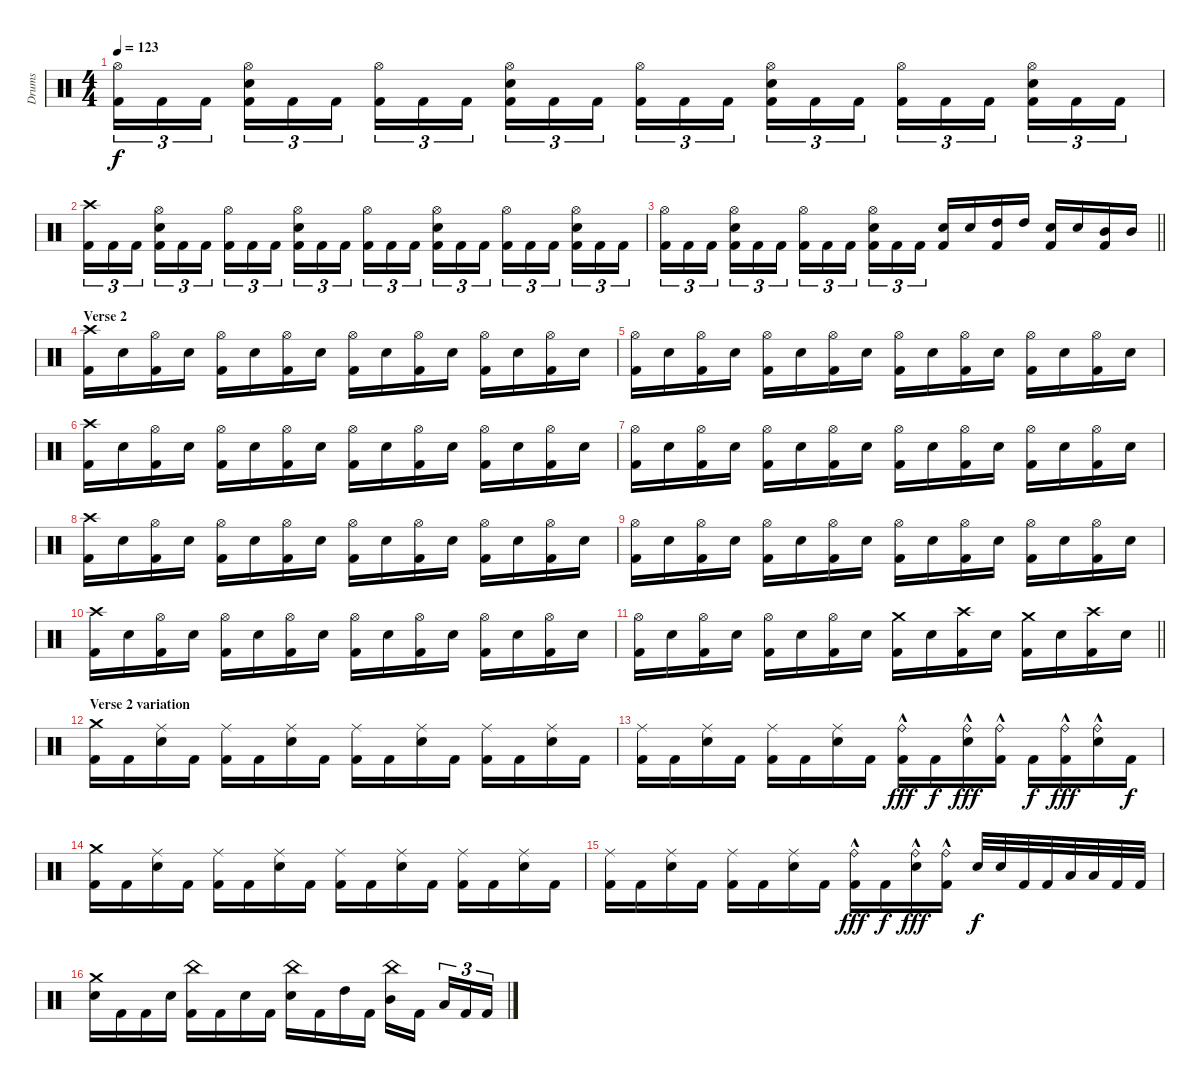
\track ("Drums" "Drums") {instrument percussion}
\staff {score}
\articulation defaults
\ts (4 4)
\tempo 123
\clef neutral
\ks c
("Hi-Hat (open)" "Kick (hit) 2").16{tu (3 2) dy f} "Kick (hit) 2".16{tu (3 2)} "Kick (hit) 2".16{tu (3 2) beam splitsecondary} ("Hi-Hat (open)" "Snare (hit) 2" "Kick (hit) 2").16{tu (3 2)} "Kick (hit) 2".16{tu (3 2)} "Kick (hit) 2".16{tu (3 2)} ("Hi-Hat (open)" "Kick (hit) 2").16{tu (3 2)} "Kick (hit) 2".16{tu (3 2)} "Kick (hit) 2".16{tu (3 2) beam splitsecondary} ("Hi-Hat (open)" "Snare (hit) 2" "Kick (hit) 2").16{tu (3 2)} "Kick (hit) 2".16{tu (3 2)} "Kick (hit) 2".16{tu (3 2)} ("Hi-Hat (open)" "Kick (hit) 2").16{tu (3 2)} "Kick (hit) 2".16{tu (3 2)} "Kick (hit) 2".16{tu (3 2) beam splitsecondary} ("Hi-Hat (open)" "Snare (hit) 2" "Kick (hit) 2").16{tu (3 2)} "Kick (hit) 2".16{tu (3 2)} "Kick (hit) 2".16{tu (3 2)} ("Hi-Hat (open)" "Kick (hit) 2").16{tu (3 2)} "Kick (hit) 2".16{tu (3 2)} "Kick (hit) 2".16{tu (3 2) beam splitsecondary} ("Hi-Hat (open)" "Snare (hit) 2" "Kick (hit) 2").16{tu (3 2)} "Kick (hit) 2".16{tu (3 2)} "Kick (hit) 2".16{tu (3 2)} |
("Crash high (hit)" "Kick (hit) 2").16{tu (3 2)} "Kick (hit) 2".16{tu (3 2)} "Kick (hit) 2".16{tu (3 2) beam splitsecondary} ("Hi-Hat (open)" "Snare (hit) 2" "Kick (hit) 2").16{tu (3 2)} "Kick (hit) 2".16{tu (3 2)} "Kick (hit) 2".16{tu (3 2)} ("Hi-Hat (open)" "Kick (hit) 2").16{tu (3 2)} "Kick (hit) 2".16{tu (3 2)} "Kick (hit) 2".16{tu (3 2) beam splitsecondary} ("Hi-Hat (open)" "Snare (hit) 2" "Kick (hit) 2").16{tu (3 2)} "Kick (hit) 2".16{tu (3 2)} "Kick (hit) 2".16{tu (3 2)} ("Hi-Hat (open)" "Kick (hit) 2").16{tu (3 2)} "Kick (hit) 2".16{tu (3 2)} "Kick (hit) 2".16{tu (3 2) beam splitsecondary} ("Hi-Hat (open)" "Snare (hit) 2" "Kick (hit) 2").16{tu (3 2)} "Kick (hit) 2".16{tu (3 2)} "Kick (hit) 2".16{tu (3 2)} ("Hi-Hat (open)" "Kick (hit) 2").16{tu (3 2)} "Kick (hit) 2".16{tu (3 2)} "Kick (hit) 2".16{tu (3 2) beam splitsecondary} ("Hi-Hat (open)" "Snare (hit) 2" "Kick (hit) 2").16{tu (3 2)} "Kick (hit) 2".16{tu (3 2)} "Kick (hit) 2".16{tu (3 2)} |
\barLineRight lightlight
("Hi-Hat (open)" "Kick (hit) 2").16{tu (3 2)} "Kick (hit) 2".16{tu (3 2)} "Kick (hit) 2".16{tu (3 2) beam splitsecondary} ("Hi-Hat (open)" "Snare (hit) 2" "Kick (hit) 2").16{tu (3 2)} "Kick (hit) 2".16{tu (3 2)} "Kick (hit) 2".16{tu (3 2)} ("Hi-Hat (open)" "Kick (hit) 2").16{tu (3 2)} "Kick (hit) 2".16{tu (3 2)} "Kick (hit) 2".16{tu (3 2) beam splitsecondary} ("Hi-Hat (open)" "Snare (hit) 2" "Kick (hit) 2").16{tu (3 2)} "Kick (hit) 2".16{tu (3 2)} "Kick (hit) 2".16{tu (3 2)} ("Snare (hit) 2" "Kick (hit) 2").16 "Snare (hit) 2".16 ("High Tom (hit)" "Kick (hit) 2").16 "High Tom (hit)".16 ("Snare (hit) 2" "Kick (hit) 2").16 "Snare (hit) 2".16 ("Mid Tom (hit)" "Kick (hit) 2").16 "Mid Tom (hit)".16 |
\section ("" "Verse 2")
("Crash high (hit)" "Kick (hit) 2").16 "Snare (hit) 2".16 ("Hi-Hat (open)" "Kick (hit) 2").16 "Snare (hit) 2".16 ("Hi-Hat (open)" "Kick (hit) 2").16 "Snare (hit) 2".16 ("Hi-Hat (open)" "Kick (hit) 2").16 "Snare (hit) 2".16 ("Hi-Hat (open)" "Kick (hit) 2").16 "Snare (hit) 2".16 ("Hi-Hat (open)" "Kick (hit) 2").16 "Snare (hit) 2".16 ("Hi-Hat (open)" "Kick (hit) 2").16 "Snare (hit) 2".16 ("Hi-Hat (open)" "Kick (hit) 2").16 "Snare (hit) 2".16 |
("Hi-Hat (open)" "Kick (hit) 2").16 "Snare (hit) 2".16 ("Hi-Hat (open)" "Kick (hit) 2").16 "Snare (hit) 2".16 ("Hi-Hat (open)" "Kick (hit) 2").16 "Snare (hit) 2".16 ("Hi-Hat (open)" "Kick (hit) 2").16 "Snare (hit) 2".16 ("Hi-Hat (open)" "Kick (hit) 2").16 "Snare (hit) 2".16 ("Hi-Hat (open)" "Kick (hit) 2").16 "Snare (hit) 2".16 ("Hi-Hat (open)" "Kick (hit) 2").16 "Snare (hit) 2".16 ("Hi-Hat (open)" "Kick (hit) 2").16 "Snare (hit) 2".16 |
("Crash high (hit)" "Kick (hit) 2").16 "Snare (hit) 2".16 ("Hi-Hat (open)" "Kick (hit) 2").16 "Snare (hit) 2".16 ("Hi-Hat (open)" "Kick (hit) 2").16 "Snare (hit) 2".16 ("Hi-Hat (open)" "Kick (hit) 2").16 "Snare (hit) 2".16 ("Hi-Hat (open)" "Kick (hit) 2").16 "Snare (hit) 2".16 ("Hi-Hat (open)" "Kick (hit) 2").16 "Snare (hit) 2".16 ("Hi-Hat (open)" "Kick (hit) 2").16 "Snare (hit) 2".16 ("Hi-Hat (open)" "Kick (hit) 2").16 "Snare (hit) 2".16 |
("Hi-Hat (open)" "Kick (hit) 2").16 "Snare (hit) 2".16 ("Hi-Hat (open)" "Kick (hit) 2").16 "Snare (hit) 2".16 ("Hi-Hat (open)" "Kick (hit) 2").16 "Snare (hit) 2".16 ("Hi-Hat (open)" "Kick (hit) 2").16 "Snare (hit) 2".16 ("Hi-Hat (open)" "Kick (hit) 2").16 "Snare (hit) 2".16 ("Hi-Hat (open)" "Kick (hit) 2").16 "Snare (hit) 2".16 ("Hi-Hat (open)" "Kick (hit) 2").16 "Snare (hit) 2".16 ("Hi-Hat (open)" "Kick (hit) 2").16 "Snare (hit) 2".16 |
("Crash high (hit)" "Kick (hit) 2").16 "Snare (hit) 2".16 ("Hi-Hat (open)" "Kick (hit) 2").16 "Snare (hit) 2".16 ("Hi-Hat (open)" "Kick (hit) 2").16 "Snare (hit) 2".16 ("Hi-Hat (open)" "Kick (hit) 2").16 "Snare (hit) 2".16 ("Hi-Hat (open)" "Kick (hit) 2").16 "Snare (hit) 2".16 ("Hi-Hat (open)" "Kick (hit) 2").16 "Snare (hit) 2".16 ("Hi-Hat (open)" "Kick (hit) 2").16 "Snare (hit) 2".16 ("Hi-Hat (open)" "Kick (hit) 2").16 "Snare (hit) 2".16 |
("Hi-Hat (open)" "Kick (hit) 2").16 "Snare (hit) 2".16 ("Hi-Hat (open)" "Kick (hit) 2").16 "Snare (hit) 2".16 ("Hi-Hat (open)" "Kick (hit) 2").16 "Snare (hit) 2".16 ("Hi-Hat (open)" "Kick (hit) 2").16 "Snare (hit) 2".16 ("Hi-Hat (open)" "Kick (hit) 2").16 "Snare (hit) 2".16 ("Hi-Hat (open)" "Kick (hit) 2").16 "Snare (hit) 2".16 ("Hi-Hat (open)" "Kick (hit) 2").16 "Snare (hit) 2".16 ("Hi-Hat (open)" "Kick (hit) 2").16 "Snare (hit) 2".16 |
("Crash high (hit)" "Kick (hit) 2").16 "Snare (hit) 2".16 ("Hi-Hat (open)" "Kick (hit) 2").16 "Snare (hit) 2".16 ("Hi-Hat (open)" "Kick (hit) 2").16 "Snare (hit) 2".16 ("Hi-Hat (open)" "Kick (hit) 2").16 "Snare (hit) 2".16 ("Hi-Hat (open)" "Kick (hit) 2").16 "Snare (hit) 2".16 ("Hi-Hat (open)" "Kick (hit) 2").16 "Snare (hit) 2".16 ("Hi-Hat (open)" "Kick (hit) 2").16 "Snare (hit) 2".16 ("Hi-Hat (open)" "Kick (hit) 2").16 "Snare (hit) 2".16 |
\barLineRight lightlight
("Hi-Hat (open)" "Kick (hit) 2").16 "Snare (hit) 2".16 ("Hi-Hat (open)" "Kick (hit) 2").16 "Snare (hit) 2".16 ("Hi-Hat (open)" "Kick (hit) 2").16 "Snare (hit) 2".16 ("Hi-Hat (open)" "Kick (hit) 2").16 "Snare (hit) 2".16 ("Crash medium (hit)" "Kick (hit) 2").16 "Snare (hit) 2".16 ("Crash high (hit)" "Kick (hit) 2").16 "Snare (hit) 2".16 ("Crash medium (hit)" "Kick (hit) 2").16 "Snare (hit) 2".16 ("Crash high (hit)" "Kick (hit) 2").16 "Snare (hit) 2".16 |
\section ("" "Verse 2 variation")
("Crash medium (hit)" "Kick (hit) 2").16 "Kick (hit) 2".16 ("Ride (middle)" "Snare (hit) 2").16 "Kick (hit) 2".16 ("Ride (middle)" "Kick (hit) 2").16 "Kick (hit) 2".16 ("Ride (middle)" "Snare (hit) 2").16 "Kick (hit) 2".16 ("Ride (middle)" "Kick (hit) 2").16 "Kick (hit) 2".16 ("Ride (middle)" "Snare (hit) 2").16 "Kick (hit) 2".16 ("Ride (middle)" "Kick (hit) 2").16 "Kick (hit) 2".16 ("Ride (middle)" "Snare (hit) 2").16 "Kick (hit) 2".16 |
("Ride (middle)" "Kick (hit) 2").16 "Kick (hit) 2".16 ("Ride (middle)" "Snare (hit) 2").16 "Kick (hit) 2".16 ("Ride (middle)" "Kick (hit) 2").16 "Kick (hit) 2".16 ("Ride (middle)" "Snare (hit) 2").16 "Kick (hit) 2".16 ("Ride (bell)"{hac} "Kick (hit) 2").16{dy fff} "Kick (hit) 2".16{dy f} ("Ride (bell)"{hac} "Snare (hit) 2").16{dy fff} ("Ride (bell)"{hac} "Kick (hit) 2").16 "Kick (hit) 2".16{dy f} ("Ride (bell)"{hac} "Kick (hit) 2").16{dy fff} ("Ride (bell)"{hac} "Snare (hit) 2").16 "Kick (hit) 2".16{dy f} |
("Crash medium (hit)" "Kick (hit) 2").16 "Kick (hit) 2".16 ("Ride (middle)" "Snare (hit) 2").16 "Kick (hit) 2".16 ("Ride (middle)" "Kick (hit) 2").16 "Kick (hit) 2".16 ("Ride (middle)" "Snare (hit) 2").16 "Kick (hit) 2".16 ("Ride (middle)" "Kick (hit) 2").16 "Kick (hit) 2".16 ("Ride (middle)" "Snare (hit) 2").16 "Kick (hit) 2".16 ("Ride (middle)" "Kick (hit) 2").16 "Kick (hit) 2".16 ("Ride (middle)" "Snare (hit) 2").16 "Kick (hit) 2".16 |
("Ride (middle)" "Kick (hit) 2").16 "Kick (hit) 2".16 ("Ride (middle)" "Snare (hit) 2").16 "Kick (hit) 2".16 ("Ride (middle)" "Kick (hit) 2").16 "Kick (hit) 2".16 ("Ride (middle)" "Snare (hit) 2").16 "Kick (hit) 2".16 ("Ride (bell)"{hac} "Kick (hit) 2").16{dy fff} "Kick (hit) 2".16{dy f} ("Ride (bell)"{hac} "Snare (hit) 2").16{dy fff} ("Ride (bell)"{hac} "Kick (hit) 2").16 "Snare (hit) 2".32{dy f} "Snare (hit) 2".32 "Kick (hit) 2".32 "Kick (hit) 2".32 "Low Tom (hit)".32 "Low Tom (hit)".32 "Kick (hit) 2".32 "Kick (hit) 2".32 |
("Crash medium (hit)" "Snare (hit) 2").16 "Kick (hit) 2".16 "Kick (hit) 2".16 "Snare (hit) 2".16 ("China (hit)" "Kick (hit) 2").16 "Kick (hit) 2".16 "Snare (hit) 2".16 "Kick (hit) 2".16 ("China (hit)" "Snare (hit) 2").16 "Kick (hit) 2".16 "High Tom (hit)".16 "Kick (hit) 2".16 ("China (hit)" "Mid Tom (hit)").16 "Kick (hit) 2".16{beam splitsecondary} "Low Tom (hit)".16{tu (3 2)} "Kick (hit) 2".16{tu (3 2)} "Kick (hit) 2".16{tu (3 2)}
